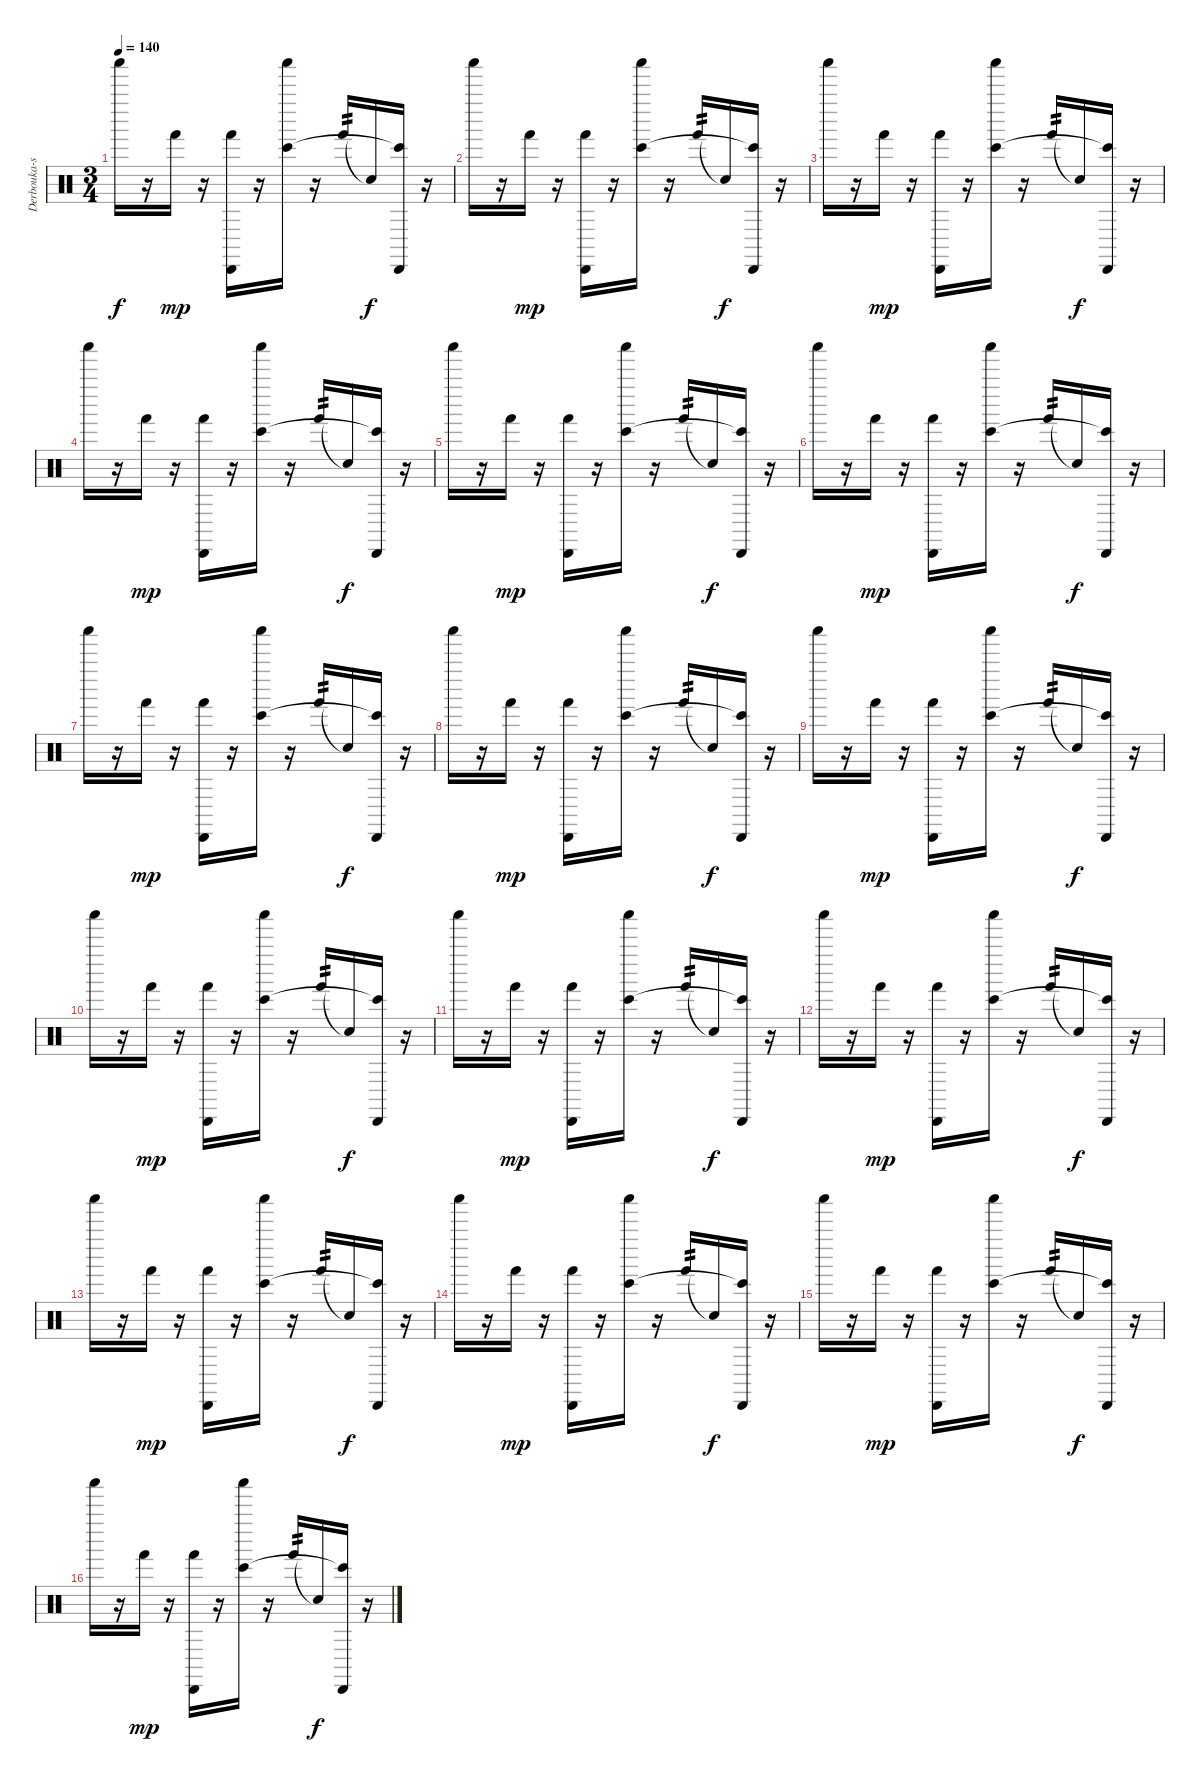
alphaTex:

\track ("Derbouka-shaker" "Derbouka-s") {instrument percussion}
\staff {score}
\articulation defaults
\ts (3 4)
\tempo 140
\clef neutral
\ks c "Shaker (hit)".16{dy f}
r.16 "Hand (hit)".16{dy mp} r.16 ("Cabasa (hit)" "Hand (hit)").16 r.16 ("Shaker (hit)" "Bongo High (hit)").16 r.16 "Hand (hit)".16{tp 2} "Snare (hit)"{t}.16{dy f} ("Cabasa (hit)" "Bongo High (hit)"{t}).16 r.16 |
"Shaker (hit)".16 r.16 "Hand (hit)".16{dy mp} r.16 ("Cabasa (hit)" "Hand (hit)").16 r.16 ("Shaker (hit)" "Bongo High (hit)").16 r.16 "Hand (hit)".16{tp 2} "Snare (hit)"{t}.16{dy f} ("Cabasa (hit)" "Bongo High (hit)"{t}).16 r.16 |
"Shaker (hit)".16 r.16 "Hand (hit)".16{dy mp} r.16 ("Cabasa (hit)" "Hand (hit)").16 r.16 ("Shaker (hit)" "Bongo High (hit)").16 r.16 "Hand (hit)".16{tp 2} "Snare (hit)"{t}.16{dy f} ("Cabasa (hit)" "Bongo High (hit)"{t}).16 r.16 |
"Shaker (hit)".16 r.16 "Hand (hit)".16{dy mp} r.16 ("Cabasa (hit)" "Hand (hit)").16 r.16 ("Shaker (hit)" "Bongo High (hit)").16 r.16 "Hand (hit)".16{tp 2} "Snare (hit)"{t}.16{dy f} ("Cabasa (hit)" "Bongo High (hit)"{t}).16 r.16 |
"Shaker (hit)".16 r.16 "Hand (hit)".16{dy mp} r.16 ("Cabasa (hit)" "Hand (hit)").16 r.16 ("Shaker (hit)" "Bongo High (hit)").16 r.16 "Hand (hit)".16{tp 2} "Snare (hit)"{t}.16{dy f} ("Cabasa (hit)" "Bongo High (hit)"{t}).16 r.16 |
"Shaker (hit)".16 r.16 "Hand (hit)".16{dy mp} r.16 ("Cabasa (hit)" "Hand (hit)").16 r.16 ("Shaker (hit)" "Bongo High (hit)").16 r.16 "Hand (hit)".16{tp 2} "Snare (hit)"{t}.16{dy f} ("Cabasa (hit)" "Bongo High (hit)"{t}).16 r.16 |
"Shaker (hit)".16 r.16 "Hand (hit)".16{dy mp} r.16 ("Cabasa (hit)" "Hand (hit)").16 r.16 ("Shaker (hit)" "Bongo High (hit)").16 r.16 "Hand (hit)".16{tp 2} "Snare (hit)"{t}.16{dy f} ("Cabasa (hit)" "Bongo High (hit)"{t}).16 r.16 |
"Shaker (hit)".16 r.16 "Hand (hit)".16{dy mp} r.16 ("Cabasa (hit)" "Hand (hit)").16 r.16 ("Shaker (hit)" "Bongo High (hit)").16 r.16 "Hand (hit)".16{tp 2} "Snare (hit)"{t}.16{dy f} ("Cabasa (hit)" "Bongo High (hit)"{t}).16 r.16 |
"Shaker (hit)".16 r.16 "Hand (hit)".16{dy mp} r.16 ("Cabasa (hit)" "Hand (hit)").16 r.16 ("Shaker (hit)" "Bongo High (hit)").16 r.16 "Hand (hit)".16{tp 2} "Snare (hit)"{t}.16{dy f} ("Cabasa (hit)" "Bongo High (hit)"{t}).16 r.16 |
"Shaker (hit)".16 r.16 "Hand (hit)".16{dy mp} r.16 ("Cabasa (hit)" "Hand (hit)").16 r.16 ("Shaker (hit)" "Bongo High (hit)").16 r.16 "Hand (hit)".16{tp 2} "Snare (hit)"{t}.16{dy f} ("Cabasa (hit)" "Bongo High (hit)"{t}).16 r.16 |
"Shaker (hit)".16 r.16 "Hand (hit)".16{dy mp} r.16 ("Cabasa (hit)" "Hand (hit)").16 r.16 ("Shaker (hit)" "Bongo High (hit)").16 r.16 "Hand (hit)".16{tp 2} "Snare (hit)"{t}.16{dy f} ("Cabasa (hit)" "Bongo High (hit)"{t}).16 r.16 |
"Shaker (hit)".16 r.16 "Hand (hit)".16{dy mp} r.16 ("Cabasa (hit)" "Hand (hit)").16 r.16 ("Shaker (hit)" "Bongo High (hit)").16 r.16 "Hand (hit)".16{tp 2} "Snare (hit)"{t}.16{dy f} ("Cabasa (hit)" "Bongo High (hit)"{t}).16 r.16 |
"Shaker (hit)".16 r.16 "Hand (hit)".16{dy mp} r.16 ("Cabasa (hit)" "Hand (hit)").16 r.16 ("Shaker (hit)" "Bongo High (hit)").16 r.16 "Hand (hit)".16{tp 2} "Snare (hit)"{t}.16{dy f} ("Cabasa (hit)" "Bongo High (hit)"{t}).16 r.16 |
"Shaker (hit)".16 r.16 "Hand (hit)".16{dy mp} r.16 ("Cabasa (hit)" "Hand (hit)").16 r.16 ("Shaker (hit)" "Bongo High (hit)").16 r.16 "Hand (hit)".16{tp 2} "Snare (hit)"{t}.16{dy f} ("Cabasa (hit)" "Bongo High (hit)"{t}).16 r.16 |
"Shaker (hit)".16 r.16 "Hand (hit)".16{dy mp} r.16 ("Cabasa (hit)" "Hand (hit)").16 r.16 ("Shaker (hit)" "Bongo High (hit)").16 r.16 "Hand (hit)".16{tp 2} "Snare (hit)"{t}.16{dy f} ("Cabasa (hit)" "Bongo High (hit)"{t}).16 r.16 |
"Shaker (hit)".16 r.16 "Hand (hit)".16{dy mp} r.16 ("Cabasa (hit)" "Hand (hit)").16 r.16 ("Shaker (hit)" "Bongo High (hit)").16 r.16 "Hand (hit)".16{tp 2} "Snare (hit)"{t}.16{dy f} ("Cabasa (hit)" "Bongo High (hit)"{t}).16 r.16
